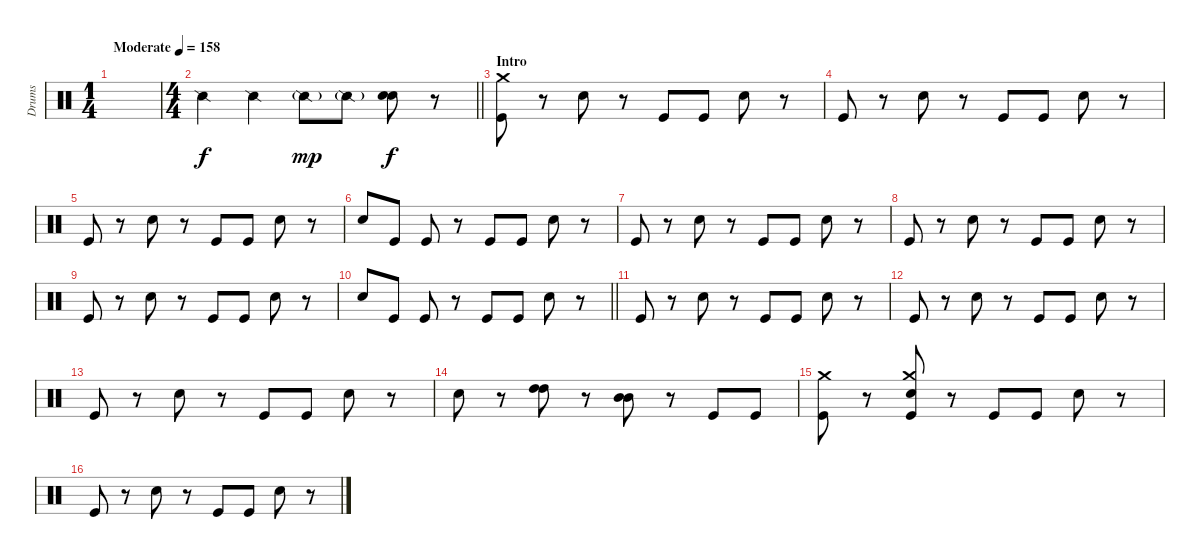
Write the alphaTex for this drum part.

\track ("Drums" "Drums") {instrument percussion}
\staff {score}
\articulation defaults
\ts (1 4)
\tempo (158 "Moderate")
\clef neutral
\ks c
|
\ts (4 4)
\barLineRight lightlight "Snare (side stick) 2".4 "Snare (side stick) 2".4 "Snare (side stick) 2"{g}.8{dy mp} "Snare (side stick) 2"{g}.8
("Snare (hit) 2" "Snare (hit) 2").8{dy f} r.8 |
\section ("" "Intro")
("Crash medium (hit)" "Kick (hit)").8 r.8 "Snare (hit) 2".8 r.8 "Kick (hit)".8 "Kick (hit)".8 "Snare (hit) 2".8 r.8 |
"Kick (hit)".8 r.8 "Snare (hit) 2".8 r.8 "Kick (hit)".8 "Kick (hit)".8 "Snare (hit) 2".8 r.8 |
"Kick (hit)".8 r.8 "Snare (hit) 2".8 r.8 "Kick (hit)".8 "Kick (hit)".8 "Snare (hit) 2".8 r.8 |
"Snare (hit) 2".8 "Kick (hit)".8 "Kick (hit)".8 r.8 "Kick (hit)".8 "Kick (hit)".8 "Snare (hit) 2".8 r.8 |
"Kick (hit)".8 r.8 "Snare (hit) 2".8 r.8 "Kick (hit)".8 "Kick (hit)".8 "Snare (hit) 2".8 r.8 |
"Kick (hit)".8 r.8 "Snare (hit) 2".8 r.8 "Kick (hit)".8 "Kick (hit)".8 "Snare (hit) 2".8 r.8 |
"Kick (hit)".8 r.8 "Snare (hit) 2".8 r.8 "Kick (hit)".8 "Kick (hit)".8 "Snare (hit) 2".8 r.8 |
\barLineRight lightlight "Snare (hit) 2".8 "Kick (hit)".8 "Kick (hit)".8
r.8 "Kick (hit)".8 "Kick (hit)".8 "Snare (hit) 2".8 r.8 |
"Kick (hit)".8 r.8 "Snare (hit) 2".8 r.8 "Kick (hit)".8 "Kick (hit)".8 "Snare (hit) 2".8 r.8 |
"Kick (hit)".8 r.8 "Snare (hit) 2".8 r.8 "Kick (hit)".8 "Kick (hit)".8 "Snare (hit) 2".8 r.8 |
"Kick (hit)".8 r.8 "Snare (hit) 2".8 r.8 "Kick (hit)".8 "Kick (hit)".8 "Snare (hit) 2".8 r.8 |
"Snare (hit) 2".8 r.8 ("High Tom (hit)" "High Tom (hit)").8 r.8 ("Mid Tom (hit)" "Mid Tom (hit)").8 r.8 "Kick (hit)".8 "Kick (hit)".8 |
("Crash medium (hit)" "Kick (hit)").8 r.8 ("Crash medium (hit)" "Snare (hit) 2" "Kick (hit)").8 r.8 "Kick (hit)".8 "Kick (hit)".8 "Snare (hit) 2".8 r.8 |
"Kick (hit)".8 r.8 "Snare (hit) 2".8 r.8 "Kick (hit)".8 "Kick (hit)".8 "Snare (hit) 2".8 r.8
